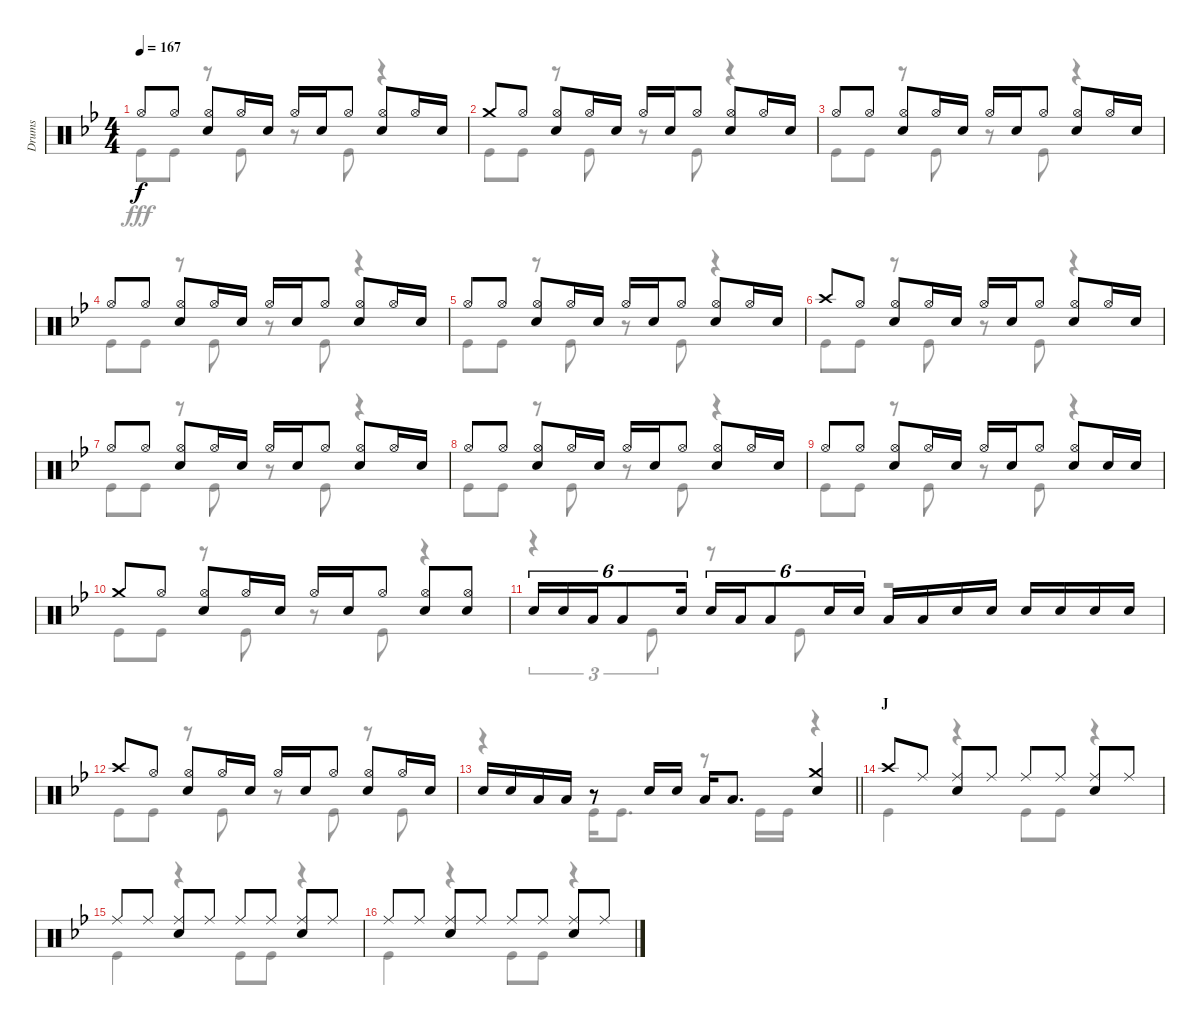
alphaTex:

\track ("Drums" "Drums") {instrument percussion}
\staff {score}
\articulation defaults
\voice
\ts (4 4)
\tempo 167
\clef neutral
\ks bb "Hi-Hat (open)".8{dy f} "Hi-Hat (open)".8
("Hi-Hat (open)" "Snare (hit) 2").8 "Hi-Hat (open)".16 "Snare (hit) 2".16 "Hi-Hat (open)".16 "Snare (hit) 2".16 "Hi-Hat (open)".8 ("Hi-Hat (open)" "Snare (hit) 2").8 "Hi-Hat (open)".16 "Snare (hit) 2".16 |
"Crash medium (hit)".8 "Hi-Hat (open)".8 ("Hi-Hat (open)" "Snare (hit) 2").8 "Hi-Hat (open)".16 "Snare (hit) 2".16 "Hi-Hat (open)".16 "Snare (hit) 2".16 "Hi-Hat (open)".8 ("Hi-Hat (open)" "Snare (hit) 2").8 "Hi-Hat (open)".16 "Snare (hit) 2".16 |
"Hi-Hat (open)".8 "Hi-Hat (open)".8 ("Hi-Hat (open)" "Snare (hit) 2").8 "Hi-Hat (open)".16 "Snare (hit) 2".16 "Hi-Hat (open)".16 "Snare (hit) 2".16 "Hi-Hat (open)".8 ("Hi-Hat (open)" "Snare (hit) 2").8 "Hi-Hat (open)".16 "Snare (hit) 2".16 |
"Hi-Hat (open)".8 "Hi-Hat (open)".8 ("Hi-Hat (open)" "Snare (hit) 2").8 "Hi-Hat (open)".16 "Snare (hit) 2".16 "Hi-Hat (open)".16 "Snare (hit) 2".16 "Hi-Hat (open)".8 ("Hi-Hat (open)" "Snare (hit) 2").8 "Hi-Hat (open)".16 "Snare (hit) 2".16 |
"Hi-Hat (open)".8 "Hi-Hat (open)".8 ("Hi-Hat (open)" "Snare (hit) 2").8 "Hi-Hat (open)".16 "Snare (hit) 2".16 "Hi-Hat (open)".16 "Snare (hit) 2".16 "Hi-Hat (open)".8 ("Hi-Hat (open)" "Snare (hit) 2").8 "Hi-Hat (open)".16 "Snare (hit) 2".16 |
"Crash high (hit)".8 "Hi-Hat (open)".8 ("Hi-Hat (open)" "Snare (hit) 2").8 "Hi-Hat (open)".16 "Snare (hit) 2".16 "Hi-Hat (open)".16 "Snare (hit) 2".16 "Hi-Hat (open)".8 ("Hi-Hat (open)" "Snare (hit) 2").8 "Hi-Hat (open)".16 "Snare (hit) 2".16 |
"Hi-Hat (open)".8 "Hi-Hat (open)".8 ("Hi-Hat (open)" "Snare (hit) 2").8 "Hi-Hat (open)".16 "Snare (hit) 2".16 "Hi-Hat (open)".16 "Snare (hit) 2".16 "Hi-Hat (open)".8 ("Hi-Hat (open)" "Snare (hit) 2").8 "Hi-Hat (open)".16 "Snare (hit) 2".16 |
"Hi-Hat (open)".8 "Hi-Hat (open)".8 ("Hi-Hat (open)" "Snare (hit) 2").8 "Hi-Hat (open)".16 "Snare (hit) 2".16 "Hi-Hat (open)".16 "Snare (hit) 2".16 "Hi-Hat (open)".8 ("Hi-Hat (open)" "Snare (hit) 2").8 "Hi-Hat (open)".16 "Snare (hit) 2".16 |
"Hi-Hat (open)".8 "Hi-Hat (open)".8 ("Hi-Hat (open)" "Snare (hit) 2").8 "Hi-Hat (open)".16 "Snare (hit) 2".16 "Hi-Hat (open)".16 "Snare (hit) 2".16 "Hi-Hat (open)".8 ("Hi-Hat (open)" "Snare (hit) 2").8 "Snare (hit) 2".16 "Snare (hit) 2".16 |
"Crash medium (hit)".8 "Hi-Hat (open)".8 ("Hi-Hat (open)" "Snare (hit) 2").8 "Hi-Hat (open)".16 "Snare (hit) 2".16 "Hi-Hat (open)".16 "Snare (hit) 2".16 "Hi-Hat (open)".8 ("Hi-Hat (open)" "Snare (hit) 2").8 ("Hi-Hat (open)" "Snare (hit) 2").8 |
"Snare (hit) 2".16{tu (6 4)} "Snare (hit) 2".16{tu (6 4)} "Low Tom (hit)".16{tu (6 4)} "Low Tom (hit)".8{tu (6 4)} "Snare (hit) 2".16{tu (6 4)} "Snare (hit) 2".16{tu (6 4)} "Low Tom (hit)".16{tu (6 4)} "Low Tom (hit)".8{tu (6 4)} "Snare (hit) 2".16{tu (6 4)} "Snare (hit) 2".16{tu (6 4)} "Low Tom (hit)".16 "Low Tom (hit)".16 "Snare (hit) 2".16 "Snare (hit) 2".16 "Snare (hit) 2".16 "Snare (hit) 2".16 "Snare (hit) 2".16 "Snare (hit) 2".16 |
"Crash high (hit)".8 "Hi-Hat (open)".8 ("Hi-Hat (open)" "Snare (hit) 2").8 "Hi-Hat (open)".16 "Snare (hit) 2".16 "Hi-Hat (open)".16 "Snare (hit) 2".16 "Hi-Hat (open)".8 ("Hi-Hat (open)" "Snare (hit) 2").8 "Hi-Hat (open)".16 "Snare (hit) 2".16 |
\barLineRight lightlight "Snare (hit) 2".16 "Snare (hit) 2".16 "Low Tom (hit)".16 "Low Tom (hit)".16
r.8 "Snare (hit) 2".16 "Snare (hit) 2".16 "Low Tom (hit)".16 "Low Tom (hit)".8{d} ("Crash medium (hit)" "Snare (hit) 2").4 |
\section ("" "J")
"Crash high (hit)".8 "Ride (middle)".8 ("Ride (middle)" "Snare (hit) 2").8 "Ride (middle)".8 "Ride (middle)".8 "Ride (middle)".8 ("Ride (middle)" "Snare (hit) 2").8 "Ride (middle)".8 |
"Ride (middle)".8 "Ride (middle)".8 ("Ride (middle)" "Snare (hit) 2").8 "Ride (middle)".8 "Ride (middle)".8 "Ride (middle)".8 ("Ride (middle)" "Snare (hit) 2").8 "Ride (middle)".8 |
"Ride (middle)".8 "Ride (middle)".8 ("Ride (middle)" "Snare (hit) 2").8 "Ride (middle)".8 "Ride (middle)".8 "Ride (middle)".8 ("Ride (middle)" "Snare (hit) 2").8 "Ride (middle)".8
\voice
\clef neutral
\ottava regular
\simile none
\ks bb "Kick (hit)".8{dy fff} "Kick (hit)".8
r.8 "Kick (hit)".8 r.8 "Kick (hit)".8 r.4 |
"Kick (hit)".8 "Kick (hit)".8 r.8 "Kick (hit)".8 r.8 "Kick (hit)".8 r.4 |
"Kick (hit)".8 "Kick (hit)".8 r.8 "Kick (hit)".8 r.8 "Kick (hit)".8 r.4 |
"Kick (hit)".8 "Kick (hit)".8 r.8 "Kick (hit)".8 r.8 "Kick (hit)".8 r.4 |
"Kick (hit)".8 "Kick (hit)".8 r.8 "Kick (hit)".8 r.8 "Kick (hit)".8 r.4 |
"Kick (hit)".8 "Kick (hit)".8 r.8 "Kick (hit)".8 r.8 "Kick (hit)".8 r.4 |
"Kick (hit)".8 "Kick (hit)".8 r.8 "Kick (hit)".8 r.8 "Kick (hit)".8 r.4 |
"Kick (hit)".8 "Kick (hit)".8 r.8 "Kick (hit)".8 r.8 "Kick (hit)".8 r.4 |
"Kick (hit)".8 "Kick (hit)".8 r.8 "Kick (hit)".8 r.8 "Kick (hit)".8 r.4 |
"Kick (hit)".8 "Kick (hit)".8 r.8 "Kick (hit)".8 r.8 "Kick (hit)".8 r.4 |
r.4{tu (3 2)} "Kick (hit)".8{tu (3 2)} r.8 "Kick (hit)".8 r.2 |
"Kick (hit)".8 "Kick (hit)".8 r.8 "Kick (hit)".8 r.8 "Kick (hit)".8 r.8 "Kick (hit)".8 |
\barLineRight lightlight
r.4 "Kick (hit)".16 "Kick (hit)".8{d} r.8 "Kick (hit)".16 "Kick (hit)".16 r.4 |
"Kick (hit)".4 r.4 "Kick (hit)".8 "Kick (hit)".8 r.4 |
"Kick (hit)".4 r.4 "Kick (hit)".8 "Kick (hit)".8 r.4 |
"Kick (hit)".4 r.4 "Kick (hit)".8 "Kick (hit)".8 r.4
